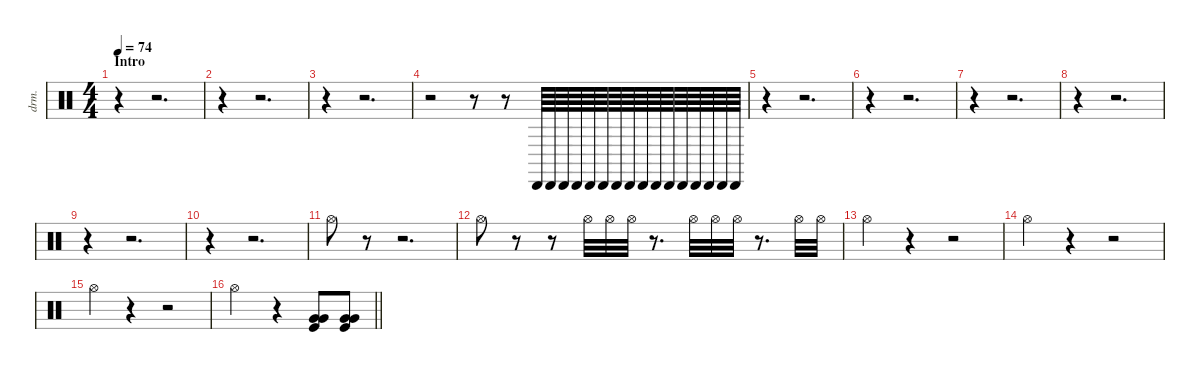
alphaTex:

\defaultSystemsLayout 4
\hideDynamics
\bracketExtendMode nobrackets
\otherSystemsTrackNameOrientation horizontal
\track ("Percussion" "drm.") {instrument percussion}
\staff {score}
\articulation defaults
\ts (4 4)
\beaming (8 2 2 2 2)
\section ("" "Intro")
\tempo 74
\clef neutral
\ks c
r.4{dy f} r.2{d} |
r.4 r.2{d} |
r.4 r.2{d} |
r.2 r.8 r.8 "Cabasa (hit)".64 "Cabasa (hit)".64 "Cabasa (hit)".64 "Cabasa (hit)".64 "Cabasa (hit)".64 "Cabasa (hit)".64 "Cabasa (hit)".64 "Cabasa (hit)".64 "Cabasa (hit)".64 "Cabasa (hit)".64 "Cabasa (hit)".64 "Cabasa (hit)".64 "Cabasa (hit)".64 "Cabasa (hit)".64 "Cabasa (hit)".64 "Cabasa (hit)".64 |
r.4 r.2{d} |
r.4 r.2{d} |
r.4 r.2{d} |
r.4 r.2{d} |
r.4 r.2{d} |
r.4 r.2{d} |
"Hi-Hat (open)".8 r.8 r.2{d} |
"Hi-Hat (open)".8 r.8 r.8 "Hi-Hat (open)".32 "Hi-Hat (open)".32 "Hi-Hat (open)".32 r.8{d} "Hi-Hat (open)".32 "Hi-Hat (open)".32 "Hi-Hat (open)".32 r.8{d} "Hi-Hat (open)".32 "Hi-Hat (open)".32 |
"Hi-Hat (open)".4 r.4 r.2 |
"Hi-Hat (open)".4 r.4 r.2 |
"Hi-Hat (open)".4 r.4 r.2 |
\barLineRight lightlight "Hi-Hat (open)".2
r.4 ("Very Low Tom (hit)" "Very Low Tom (hit)" "Kick (hit)").8 ("Very Low Tom (hit)" "Very Low Tom (hit)" "Kick (hit)").8
